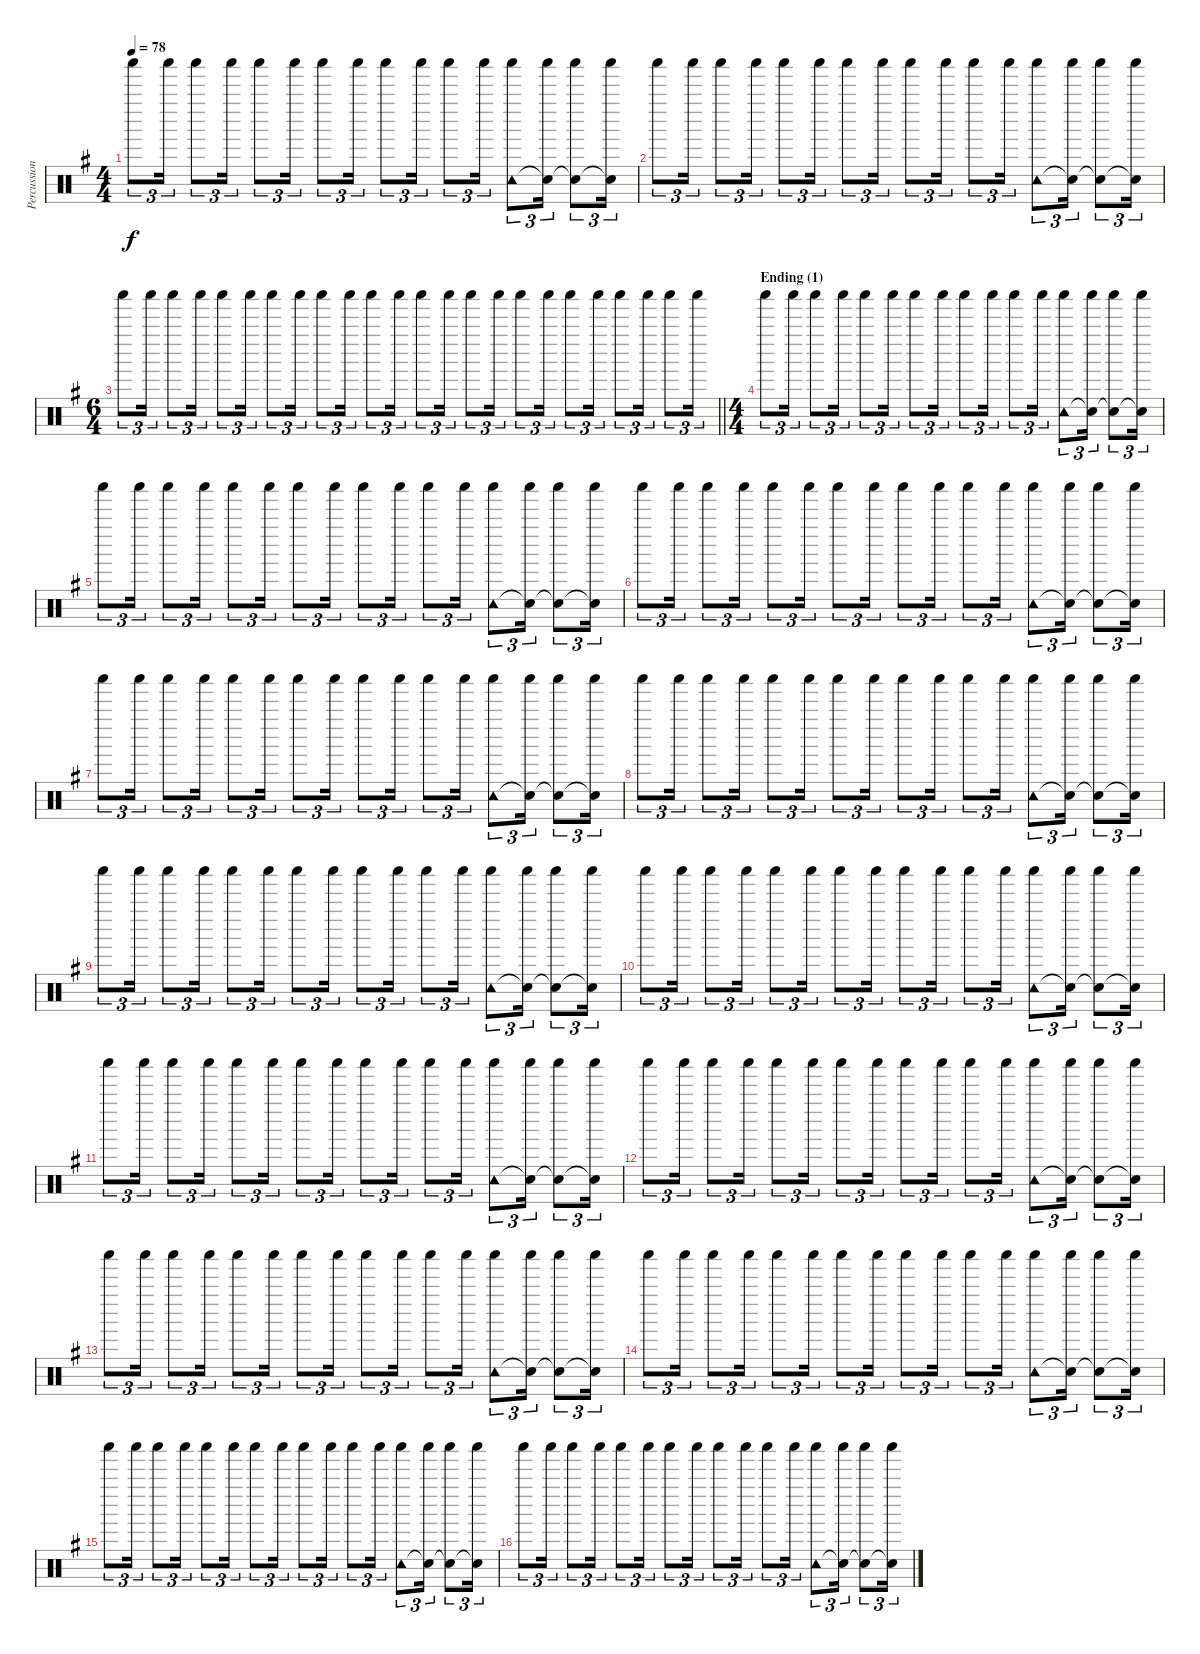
\track ("Percussion" "Percussion") {instrument percussion}
\staff {score}
\articulation defaults
\ts (4 4)
\tempo 78
\clef neutral
\ks g "Shaker (hit)".8{tu (3 2) dy f} "Shaker (hit)".16{tu (3 2)} "Shaker (hit)".8{tu (3 2)} "Shaker (hit)".16{tu (3 2)} "Shaker (hit)".8{tu (3 2)} "Shaker (hit)".16{tu (3 2)} "Shaker (hit)".8{tu (3 2)} "Shaker (hit)".16{tu (3 2)} "Shaker (hit)".8{tu (3 2)} "Shaker (hit)".16{tu (3 2)} "Shaker (hit)".8{tu (3 2)} "Shaker (hit)".16{tu (3 2)}
("Shaker (hit)" "Tambourine (hit)").8{tu (3 2)} ("Shaker (hit)" "Snare (hit)"{t}).16{tu (3 2)} ("Shaker (hit)" "Snare (hit)"{t}).8{tu (3 2)} ("Shaker (hit)" "Snare (hit)"{t}).16{tu (3 2)} |
"Shaker (hit)".8{tu (3 2)} "Shaker (hit)".16{tu (3 2)} "Shaker (hit)".8{tu (3 2)} "Shaker (hit)".16{tu (3 2)} "Shaker (hit)".8{tu (3 2)} "Shaker (hit)".16{tu (3 2)} "Shaker (hit)".8{tu (3 2)} "Shaker (hit)".16{tu (3 2)} "Shaker (hit)".8{tu (3 2)} "Shaker (hit)".16{tu (3 2)} "Shaker (hit)".8{tu (3 2)} "Shaker (hit)".16{tu (3 2)} ("Shaker (hit)" "Tambourine (hit)").8{tu (3 2)} ("Shaker (hit)" "Snare (hit)"{t}).16{tu (3 2)} ("Shaker (hit)" "Snare (hit)"{t}).8{tu (3 2)} ("Shaker (hit)" "Snare (hit)"{t}).16{tu (3 2)} |
\ts (6 4)
\barLineRight lightlight "Shaker (hit)".8{tu (3 2)} "Shaker (hit)".16{tu (3 2)} "Shaker (hit)".8{tu (3 2)} "Shaker (hit)".16{tu (3 2)} "Shaker (hit)".8{tu (3 2)} "Shaker (hit)".16{tu (3 2)} "Shaker (hit)".8{tu (3 2)} "Shaker (hit)".16{tu (3 2)} "Shaker (hit)".8{tu (3 2)} "Shaker (hit)".16{tu (3 2)} "Shaker (hit)".8{tu (3 2)} "Shaker (hit)".16{tu (3 2)} "Shaker (hit)".8{tu (3 2)} "Shaker (hit)".16{tu (3 2)} "Shaker (hit)".8{tu (3 2)} "Shaker (hit)".16{tu (3 2)} "Shaker (hit)".8{tu (3 2)} "Shaker (hit)".16{tu (3 2)} "Shaker (hit)".8{tu (3 2)} "Shaker (hit)".16{tu (3 2)} "Shaker (hit)".8{tu (3 2)} "Shaker (hit)".16{tu (3 2)} "Shaker (hit)".8{tu (3 2)} "Shaker (hit)".16{tu (3 2)}
|
\ts (4 4)
\section ("" "Ending (1)")
"Shaker (hit)".8{tu (3 2)} "Shaker (hit)".16{tu (3 2)} "Shaker (hit)".8{tu (3 2)} "Shaker (hit)".16{tu (3 2)} "Shaker (hit)".8{tu (3 2)} "Shaker (hit)".16{tu (3 2)} "Shaker (hit)".8{tu (3 2)} "Shaker (hit)".16{tu (3 2)} "Shaker (hit)".8{tu (3 2)} "Shaker (hit)".16{tu (3 2)} "Shaker (hit)".8{tu (3 2)} "Shaker (hit)".16{tu (3 2)} ("Shaker (hit)" "Tambourine (hit)").8{tu (3 2)} ("Shaker (hit)" "Snare (hit)"{t}).16{tu (3 2)} ("Shaker (hit)" "Snare (hit)"{t}).8{tu (3 2)} ("Shaker (hit)" "Snare (hit)"{t}).16{tu (3 2)} |
"Shaker (hit)".8{tu (3 2)} "Shaker (hit)".16{tu (3 2)} "Shaker (hit)".8{tu (3 2)} "Shaker (hit)".16{tu (3 2)} "Shaker (hit)".8{tu (3 2)} "Shaker (hit)".16{tu (3 2)} "Shaker (hit)".8{tu (3 2)} "Shaker (hit)".16{tu (3 2)} "Shaker (hit)".8{tu (3 2)} "Shaker (hit)".16{tu (3 2)} "Shaker (hit)".8{tu (3 2)} "Shaker (hit)".16{tu (3 2)} ("Shaker (hit)" "Tambourine (hit)").8{tu (3 2)} ("Shaker (hit)" "Snare (hit)"{t}).16{tu (3 2)} ("Shaker (hit)" "Snare (hit)"{t}).8{tu (3 2)} ("Shaker (hit)" "Snare (hit)"{t}).16{tu (3 2)} |
"Shaker (hit)".8{tu (3 2)} "Shaker (hit)".16{tu (3 2)} "Shaker (hit)".8{tu (3 2)} "Shaker (hit)".16{tu (3 2)} "Shaker (hit)".8{tu (3 2)} "Shaker (hit)".16{tu (3 2)} "Shaker (hit)".8{tu (3 2)} "Shaker (hit)".16{tu (3 2)} "Shaker (hit)".8{tu (3 2)} "Shaker (hit)".16{tu (3 2)} "Shaker (hit)".8{tu (3 2)} "Shaker (hit)".16{tu (3 2)} ("Shaker (hit)" "Tambourine (hit)").8{tu (3 2)} ("Shaker (hit)" "Snare (hit)"{t}).16{tu (3 2)} ("Shaker (hit)" "Snare (hit)"{t}).8{tu (3 2)} ("Shaker (hit)" "Snare (hit)"{t}).16{tu (3 2)} |
"Shaker (hit)".8{tu (3 2)} "Shaker (hit)".16{tu (3 2)} "Shaker (hit)".8{tu (3 2)} "Shaker (hit)".16{tu (3 2)} "Shaker (hit)".8{tu (3 2)} "Shaker (hit)".16{tu (3 2)} "Shaker (hit)".8{tu (3 2)} "Shaker (hit)".16{tu (3 2)} "Shaker (hit)".8{tu (3 2)} "Shaker (hit)".16{tu (3 2)} "Shaker (hit)".8{tu (3 2)} "Shaker (hit)".16{tu (3 2)} ("Shaker (hit)" "Tambourine (hit)").8{tu (3 2)} ("Shaker (hit)" "Snare (hit)"{t}).16{tu (3 2)} ("Shaker (hit)" "Snare (hit)"{t}).8{tu (3 2)} ("Shaker (hit)" "Snare (hit)"{t}).16{tu (3 2)} |
"Shaker (hit)".8{tu (3 2)} "Shaker (hit)".16{tu (3 2)} "Shaker (hit)".8{tu (3 2)} "Shaker (hit)".16{tu (3 2)} "Shaker (hit)".8{tu (3 2)} "Shaker (hit)".16{tu (3 2)} "Shaker (hit)".8{tu (3 2)} "Shaker (hit)".16{tu (3 2)} "Shaker (hit)".8{tu (3 2)} "Shaker (hit)".16{tu (3 2)} "Shaker (hit)".8{tu (3 2)} "Shaker (hit)".16{tu (3 2)} ("Shaker (hit)" "Tambourine (hit)").8{tu (3 2)} ("Shaker (hit)" "Snare (hit)"{t}).16{tu (3 2)} ("Shaker (hit)" "Snare (hit)"{t}).8{tu (3 2)} ("Shaker (hit)" "Snare (hit)"{t}).16{tu (3 2)} |
"Shaker (hit)".8{tu (3 2)} "Shaker (hit)".16{tu (3 2)} "Shaker (hit)".8{tu (3 2)} "Shaker (hit)".16{tu (3 2)} "Shaker (hit)".8{tu (3 2)} "Shaker (hit)".16{tu (3 2)} "Shaker (hit)".8{tu (3 2)} "Shaker (hit)".16{tu (3 2)} "Shaker (hit)".8{tu (3 2)} "Shaker (hit)".16{tu (3 2)} "Shaker (hit)".8{tu (3 2)} "Shaker (hit)".16{tu (3 2)} ("Shaker (hit)" "Tambourine (hit)").8{tu (3 2)} ("Shaker (hit)" "Snare (hit)"{t}).16{tu (3 2)} ("Shaker (hit)" "Snare (hit)"{t}).8{tu (3 2)} ("Shaker (hit)" "Snare (hit)"{t}).16{tu (3 2)} |
"Shaker (hit)".8{tu (3 2)} "Shaker (hit)".16{tu (3 2)} "Shaker (hit)".8{tu (3 2)} "Shaker (hit)".16{tu (3 2)} "Shaker (hit)".8{tu (3 2)} "Shaker (hit)".16{tu (3 2)} "Shaker (hit)".8{tu (3 2)} "Shaker (hit)".16{tu (3 2)} "Shaker (hit)".8{tu (3 2)} "Shaker (hit)".16{tu (3 2)} "Shaker (hit)".8{tu (3 2)} "Shaker (hit)".16{tu (3 2)} ("Shaker (hit)" "Tambourine (hit)").8{tu (3 2)} ("Shaker (hit)" "Snare (hit)"{t}).16{tu (3 2)} ("Shaker (hit)" "Snare (hit)"{t}).8{tu (3 2)} ("Shaker (hit)" "Snare (hit)"{t}).16{tu (3 2)} |
"Shaker (hit)".8{tu (3 2)} "Shaker (hit)".16{tu (3 2)} "Shaker (hit)".8{tu (3 2)} "Shaker (hit)".16{tu (3 2)} "Shaker (hit)".8{tu (3 2)} "Shaker (hit)".16{tu (3 2)} "Shaker (hit)".8{tu (3 2)} "Shaker (hit)".16{tu (3 2)} "Shaker (hit)".8{tu (3 2)} "Shaker (hit)".16{tu (3 2)} "Shaker (hit)".8{tu (3 2)} "Shaker (hit)".16{tu (3 2)} ("Shaker (hit)" "Tambourine (hit)").8{tu (3 2)} ("Shaker (hit)" "Snare (hit)"{t}).16{tu (3 2)} ("Shaker (hit)" "Snare (hit)"{t}).8{tu (3 2)} ("Shaker (hit)" "Snare (hit)"{t}).16{tu (3 2)} |
"Shaker (hit)".8{tu (3 2)} "Shaker (hit)".16{tu (3 2)} "Shaker (hit)".8{tu (3 2)} "Shaker (hit)".16{tu (3 2)} "Shaker (hit)".8{tu (3 2)} "Shaker (hit)".16{tu (3 2)} "Shaker (hit)".8{tu (3 2)} "Shaker (hit)".16{tu (3 2)} "Shaker (hit)".8{tu (3 2)} "Shaker (hit)".16{tu (3 2)} "Shaker (hit)".8{tu (3 2)} "Shaker (hit)".16{tu (3 2)} ("Shaker (hit)" "Tambourine (hit)").8{tu (3 2)} ("Shaker (hit)" "Snare (hit)"{t}).16{tu (3 2)} ("Shaker (hit)" "Snare (hit)"{t}).8{tu (3 2)} ("Shaker (hit)" "Snare (hit)"{t}).16{tu (3 2)} |
"Shaker (hit)".8{tu (3 2)} "Shaker (hit)".16{tu (3 2)} "Shaker (hit)".8{tu (3 2)} "Shaker (hit)".16{tu (3 2)} "Shaker (hit)".8{tu (3 2)} "Shaker (hit)".16{tu (3 2)} "Shaker (hit)".8{tu (3 2)} "Shaker (hit)".16{tu (3 2)} "Shaker (hit)".8{tu (3 2)} "Shaker (hit)".16{tu (3 2)} "Shaker (hit)".8{tu (3 2)} "Shaker (hit)".16{tu (3 2)} ("Shaker (hit)" "Tambourine (hit)").8{tu (3 2)} ("Shaker (hit)" "Snare (hit)"{t}).16{tu (3 2)} ("Shaker (hit)" "Snare (hit)"{t}).8{tu (3 2)} ("Shaker (hit)" "Snare (hit)"{t}).16{tu (3 2)} |
"Shaker (hit)".8{tu (3 2)} "Shaker (hit)".16{tu (3 2)} "Shaker (hit)".8{tu (3 2)} "Shaker (hit)".16{tu (3 2)} "Shaker (hit)".8{tu (3 2)} "Shaker (hit)".16{tu (3 2)} "Shaker (hit)".8{tu (3 2)} "Shaker (hit)".16{tu (3 2)} "Shaker (hit)".8{tu (3 2)} "Shaker (hit)".16{tu (3 2)} "Shaker (hit)".8{tu (3 2)} "Shaker (hit)".16{tu (3 2)} ("Shaker (hit)" "Tambourine (hit)").8{tu (3 2)} ("Shaker (hit)" "Snare (hit)"{t}).16{tu (3 2)} ("Shaker (hit)" "Snare (hit)"{t}).8{tu (3 2)} ("Shaker (hit)" "Snare (hit)"{t}).16{tu (3 2)} |
"Shaker (hit)".8{tu (3 2)} "Shaker (hit)".16{tu (3 2)} "Shaker (hit)".8{tu (3 2)} "Shaker (hit)".16{tu (3 2)} "Shaker (hit)".8{tu (3 2)} "Shaker (hit)".16{tu (3 2)} "Shaker (hit)".8{tu (3 2)} "Shaker (hit)".16{tu (3 2)} "Shaker (hit)".8{tu (3 2)} "Shaker (hit)".16{tu (3 2)} "Shaker (hit)".8{tu (3 2)} "Shaker (hit)".16{tu (3 2)} ("Shaker (hit)" "Tambourine (hit)").8{tu (3 2)} ("Shaker (hit)" "Snare (hit)"{t}).16{tu (3 2)} ("Shaker (hit)" "Snare (hit)"{t}).8{tu (3 2)} ("Shaker (hit)" "Snare (hit)"{t}).16{tu (3 2)} |
"Shaker (hit)".8{tu (3 2)} "Shaker (hit)".16{tu (3 2)} "Shaker (hit)".8{tu (3 2)} "Shaker (hit)".16{tu (3 2)} "Shaker (hit)".8{tu (3 2)} "Shaker (hit)".16{tu (3 2)} "Shaker (hit)".8{tu (3 2)} "Shaker (hit)".16{tu (3 2)} "Shaker (hit)".8{tu (3 2)} "Shaker (hit)".16{tu (3 2)} "Shaker (hit)".8{tu (3 2)} "Shaker (hit)".16{tu (3 2)} ("Shaker (hit)" "Tambourine (hit)").8{tu (3 2)} ("Shaker (hit)" "Snare (hit)"{t}).16{tu (3 2)} ("Shaker (hit)" "Snare (hit)"{t}).8{tu (3 2)} ("Shaker (hit)" "Snare (hit)"{t}).16{tu (3 2)}
